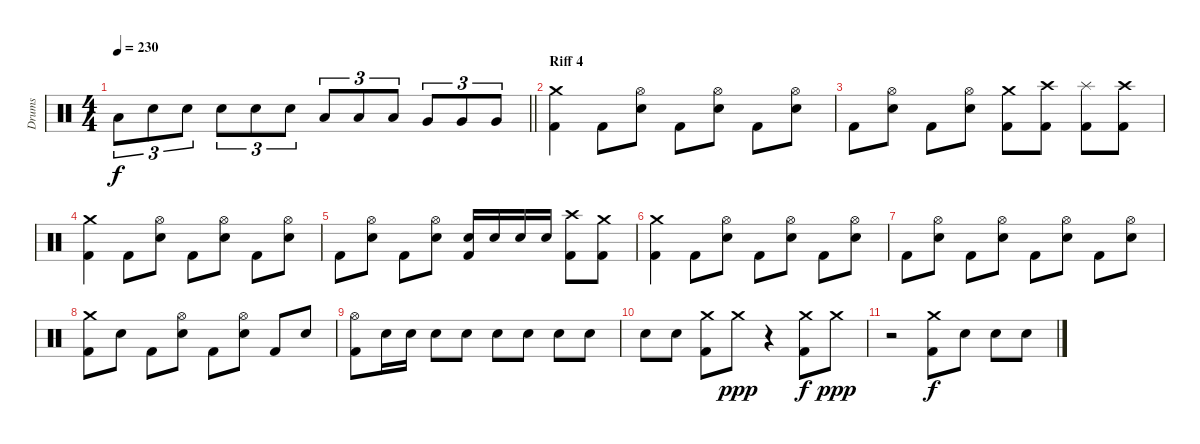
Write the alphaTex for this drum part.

\track ("Drums" "Drums") {instrument percussion}
\staff {score}
\articulation defaults
\ts (4 4)
\tempo 230
\clef neutral
\barLineRight lightlight
\ks c "Low Tom (hit)".8{tu (3 2) dy f} "Electric Snare (hit)".8{tu (3 2)} "Electric Snare (hit)".8{tu (3 2)} "Electric Snare (hit)".8{tu (3 2)} "Electric Snare (hit)".8{tu (3 2)} "Electric Snare (hit)".8{tu (3 2)} "Low Tom (hit)".8{tu (3 2)} "Low Tom (hit)".8{tu (3 2)} "Low Tom (hit)".8{tu (3 2)} "Very Low Tom (hit)".8{tu (3 2)} "Very Low Tom (hit)".8{tu (3 2)} "Very Low Tom (hit)".8{tu (3 2)}
|
\section ("" "Riff 4")
("Kick (hit) 2" "Crash medium (hit)").4 "Kick (hit) 2".8 ("Electric Snare (hit)" "Hi-Hat (open)").8 "Kick (hit) 2".8 ("Electric Snare (hit)" "Hi-Hat (open)").8 "Kick (hit) 2".8 ("Electric Snare (hit)" "Hi-Hat (open)").8 |
"Kick (hit) 2".8 ("Electric Snare (hit)" "Hi-Hat (open)").8 "Kick (hit) 2".8 ("Electric Snare (hit)" "Hi-Hat (open)").8 ("Kick (hit) 2" "Crash medium (hit)").8 ("Kick (hit) 2" "Crash high (hit)").8 ("Kick (hit) 2" "Splash (hit)").8 ("Kick (hit) 2" "Crash high (hit)").8 |
("Kick (hit) 2" "Crash medium (hit)").4 "Kick (hit) 2".8 ("Electric Snare (hit)" "Hi-Hat (open)").8 "Kick (hit) 2".8 ("Electric Snare (hit)" "Hi-Hat (open)").8 "Kick (hit) 2".8 ("Electric Snare (hit)" "Hi-Hat (open)").8 |
"Kick (hit) 2".8 ("Electric Snare (hit)" "Hi-Hat (open)").8 "Kick (hit) 2".8 ("Electric Snare (hit)" "Hi-Hat (open)").8 ("Electric Snare (hit)" "Kick (hit) 2").16 "Electric Snare (hit)".16 "Electric Snare (hit)".16 "Electric Snare (hit)".16 ("Kick (hit) 2" "Crash high (hit)").8 ("Kick (hit) 2" "Crash medium (hit)").8 |
("Kick (hit) 2" "Crash medium (hit)").4 "Kick (hit) 2".8 ("Electric Snare (hit)" "Hi-Hat (open)").8 "Kick (hit) 2".8 ("Electric Snare (hit)" "Hi-Hat (open)").8 "Kick (hit) 2".8 ("Electric Snare (hit)" "Hi-Hat (open)").8 |
"Kick (hit) 2".8 ("Electric Snare (hit)" "Hi-Hat (open)").8 "Kick (hit) 2".8 ("Electric Snare (hit)" "Hi-Hat (open)").8 "Kick (hit) 2".8 ("Electric Snare (hit)" "Hi-Hat (open)").8 "Kick (hit) 2".8 ("Electric Snare (hit)" "Hi-Hat (open)").8 |
("Kick (hit) 2" "Crash medium (hit)").8 "Electric Snare (hit)".8 "Kick (hit) 2".8 ("Electric Snare (hit)" "Hi-Hat (open)").8 "Kick (hit) 2".8 ("Electric Snare (hit)" "Hi-Hat (open)").8 "Kick (hit) 2".8 "Electric Snare (hit)".8 |
("Hi-Hat (open)" "Kick (hit) 2").8 "Electric Snare (hit)".16 "Electric Snare (hit)".16 "Electric Snare (hit)".8 "Electric Snare (hit)".8 "Electric Snare (hit)".8 "Electric Snare (hit)".8 "Electric Snare (hit)".8 "Electric Snare (hit)".8 |
"Electric Snare (hit)".8 "Electric Snare (hit)".8 ("Crash medium (hit)" "Kick (hit) 2").8 "Crash medium (hit)".8{dy ppp} r.4 ("Crash medium (hit)" "Kick (hit) 2").8{dy f} "Crash medium (hit)".8{dy ppp} |
r.2 ("Crash medium (hit)" "Kick (hit) 2").8{dy f} "Electric Snare (hit)".8 "Electric Snare (hit)".8 "Electric Snare (hit)".8
